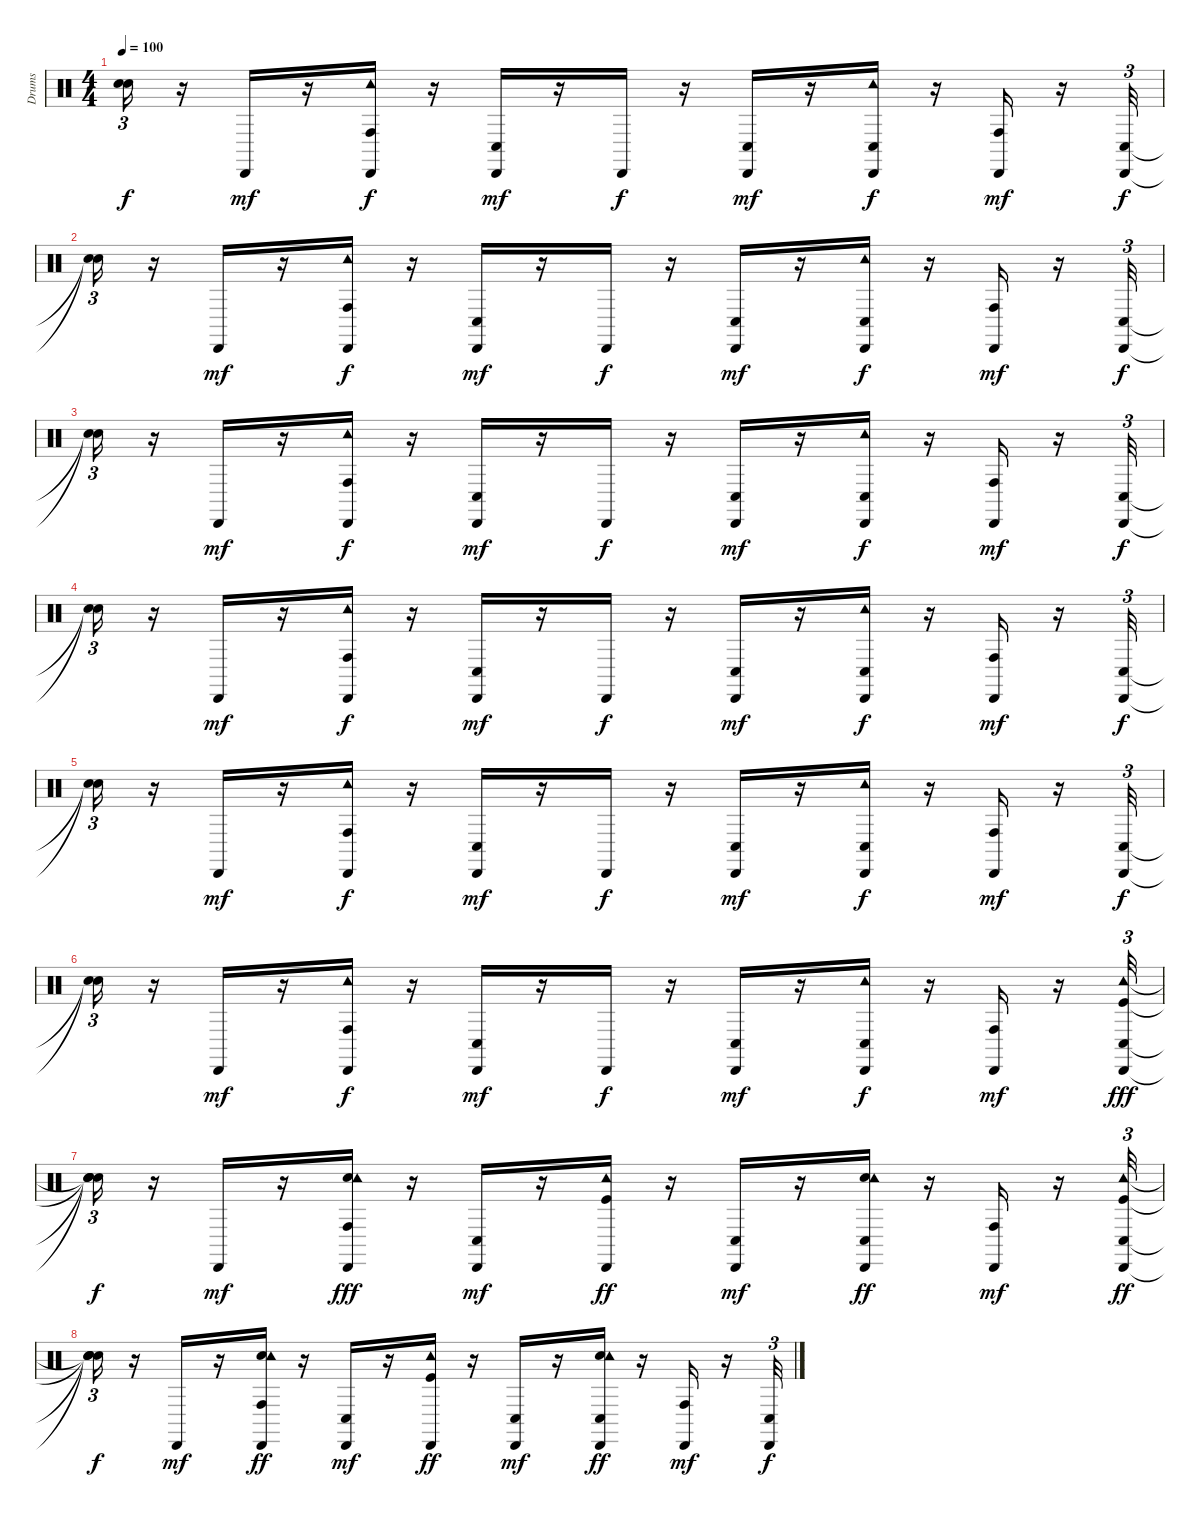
\track ("Drums" "Drums") {instrument percussion}
\staff {score}
\articulation defaults
\ts (4 4)
\tempo 100
\clef neutral
\ks c
("Snare (hit)"{t} "Snare (hit)"{t}).16{tu (3 2) dy f} r.16 "Cabasa (hit)".16{dy mf} r.16 ("Tambourine (hit)" "Conga high (hit)" "Cabasa (hit)").16{dy f} r.16 ("Conga low (hit)" "Cabasa (hit)").16{dy mf} r.16 "Cabasa (hit)".16{dy f} r.16 ("Conga low (hit)" "Cabasa (hit)").16{dy mf} r.16 ("Tambourine (hit)" "Conga low (hit)" "Cabasa (hit)").16{dy f} r.16 ("Conga high (hit)" "Cabasa (hit)").16{dy mf} r.16 ("Conga low (hit)" "Cabasa (hit)").32{tu (3 2) dy f} |
("Snare (hit)"{t} "Snare (hit)"{t}).16{tu (3 2)} r.16 "Cabasa (hit)".16{dy mf} r.16 ("Tambourine (hit)" "Conga high (hit)" "Cabasa (hit)").16{dy f} r.16 ("Conga low (hit)" "Cabasa (hit)").16{dy mf} r.16 "Cabasa (hit)".16{dy f} r.16 ("Conga low (hit)" "Cabasa (hit)").16{dy mf} r.16 ("Tambourine (hit)" "Conga low (hit)" "Cabasa (hit)").16{dy f} r.16 ("Conga high (hit)" "Cabasa (hit)").16{dy mf} r.16 ("Conga low (hit)" "Cabasa (hit)").32{tu (3 2) dy f} |
("Snare (hit)"{t} "Snare (hit)"{t}).16{tu (3 2)} r.16 "Cabasa (hit)".16{dy mf} r.16 ("Tambourine (hit)" "Conga high (hit)" "Cabasa (hit)").16{dy f} r.16 ("Conga low (hit)" "Cabasa (hit)").16{dy mf} r.16 "Cabasa (hit)".16{dy f} r.16 ("Conga low (hit)" "Cabasa (hit)").16{dy mf} r.16 ("Tambourine (hit)" "Conga low (hit)" "Cabasa (hit)").16{dy f} r.16 ("Conga high (hit)" "Cabasa (hit)").16{dy mf} r.16 ("Conga low (hit)" "Cabasa (hit)").32{tu (3 2) dy f} |
("Snare (hit)"{t} "Snare (hit)"{t}).16{tu (3 2)} r.16 "Cabasa (hit)".16{dy mf} r.16 ("Tambourine (hit)" "Conga high (hit)" "Cabasa (hit)").16{dy f} r.16 ("Conga low (hit)" "Cabasa (hit)").16{dy mf} r.16 "Cabasa (hit)".16{dy f} r.16 ("Conga low (hit)" "Cabasa (hit)").16{dy mf} r.16 ("Tambourine (hit)" "Conga low (hit)" "Cabasa (hit)").16{dy f} r.16 ("Conga high (hit)" "Cabasa (hit)").16{dy mf} r.16 ("Conga low (hit)" "Cabasa (hit)").32{tu (3 2) dy f} |
("Snare (hit)"{t} "Snare (hit)"{t}).16{tu (3 2)} r.16 "Cabasa (hit)".16{dy mf} r.16 ("Tambourine (hit)" "Conga high (hit)" "Cabasa (hit)").16{dy f} r.16 ("Conga low (hit)" "Cabasa (hit)").16{dy mf} r.16 "Cabasa (hit)".16{dy f} r.16 ("Conga low (hit)" "Cabasa (hit)").16{dy mf} r.16 ("Tambourine (hit)" "Conga low (hit)" "Cabasa (hit)").16{dy f} r.16 ("Conga high (hit)" "Cabasa (hit)").16{dy mf} r.16 ("Conga low (hit)" "Cabasa (hit)").32{tu (3 2) dy f} |
("Snare (hit)"{t} "Snare (hit)"{t}).16{tu (3 2)} r.16 "Cabasa (hit)".16{dy mf} r.16 ("Tambourine (hit)" "Conga high (hit)" "Cabasa (hit)").16{dy f} r.16 ("Conga low (hit)" "Cabasa (hit)").16{dy mf} r.16 "Cabasa (hit)".16{dy f} r.16 ("Conga low (hit)" "Cabasa (hit)").16{dy mf} r.16 ("Tambourine (hit)" "Conga low (hit)" "Cabasa (hit)").16{dy f} r.16 ("Conga high (hit)" "Cabasa (hit)").16{dy mf} r.16 ("Kick (hit)" "Tambourine (hit)" "Conga low (hit)" "Cabasa (hit)").32{tu (3 2) dy fff} |
("Snare (hit)"{t} "Snare (hit)"{t} "Snare (hit)"{t} "Snare (hit)"{t}).16{tu (3 2) dy f} r.16 "Cabasa (hit)".16{dy mf} r.16 ("Snare (hit) 2" "Tambourine (hit)" "Conga high (hit)" "Cabasa (hit)").16{dy fff} r.16 ("Conga low (hit)" "Cabasa (hit)").16{dy mf} r.16 ("Kick (hit)" "Tambourine (hit)" "Cabasa (hit)").16{dy ff} r.16 ("Conga low (hit)" "Cabasa (hit)").16{dy mf} r.16 ("Snare (hit) 2" "Tambourine (hit)" "Conga low (hit)" "Cabasa (hit)").16{dy ff} r.16 ("Conga high (hit)" "Cabasa (hit)").16{dy mf} r.16 ("Kick (hit)" "Tambourine (hit)" "Conga low (hit)" "Cabasa (hit)").32{tu (3 2) dy ff} |
("Snare (hit)"{t} "Snare (hit)"{t} "Snare (hit)"{t} "Snare (hit)"{t}).16{tu (3 2) dy f} r.16 "Cabasa (hit)".16{dy mf} r.16 ("Snare (hit) 2" "Tambourine (hit)" "Conga high (hit)" "Cabasa (hit)").16{dy ff} r.16 ("Conga low (hit)" "Cabasa (hit)").16{dy mf} r.16 ("Kick (hit)" "Tambourine (hit)" "Cabasa (hit)").16{dy ff} r.16 ("Conga low (hit)" "Cabasa (hit)").16{dy mf} r.16 ("Snare (hit) 2" "Tambourine (hit)" "Conga low (hit)" "Cabasa (hit)").16{dy ff} r.16 ("Conga high (hit)" "Cabasa (hit)").16{dy mf} r.16 ("Conga low (hit)" "Cabasa (hit)").32{tu (3 2) dy f}
